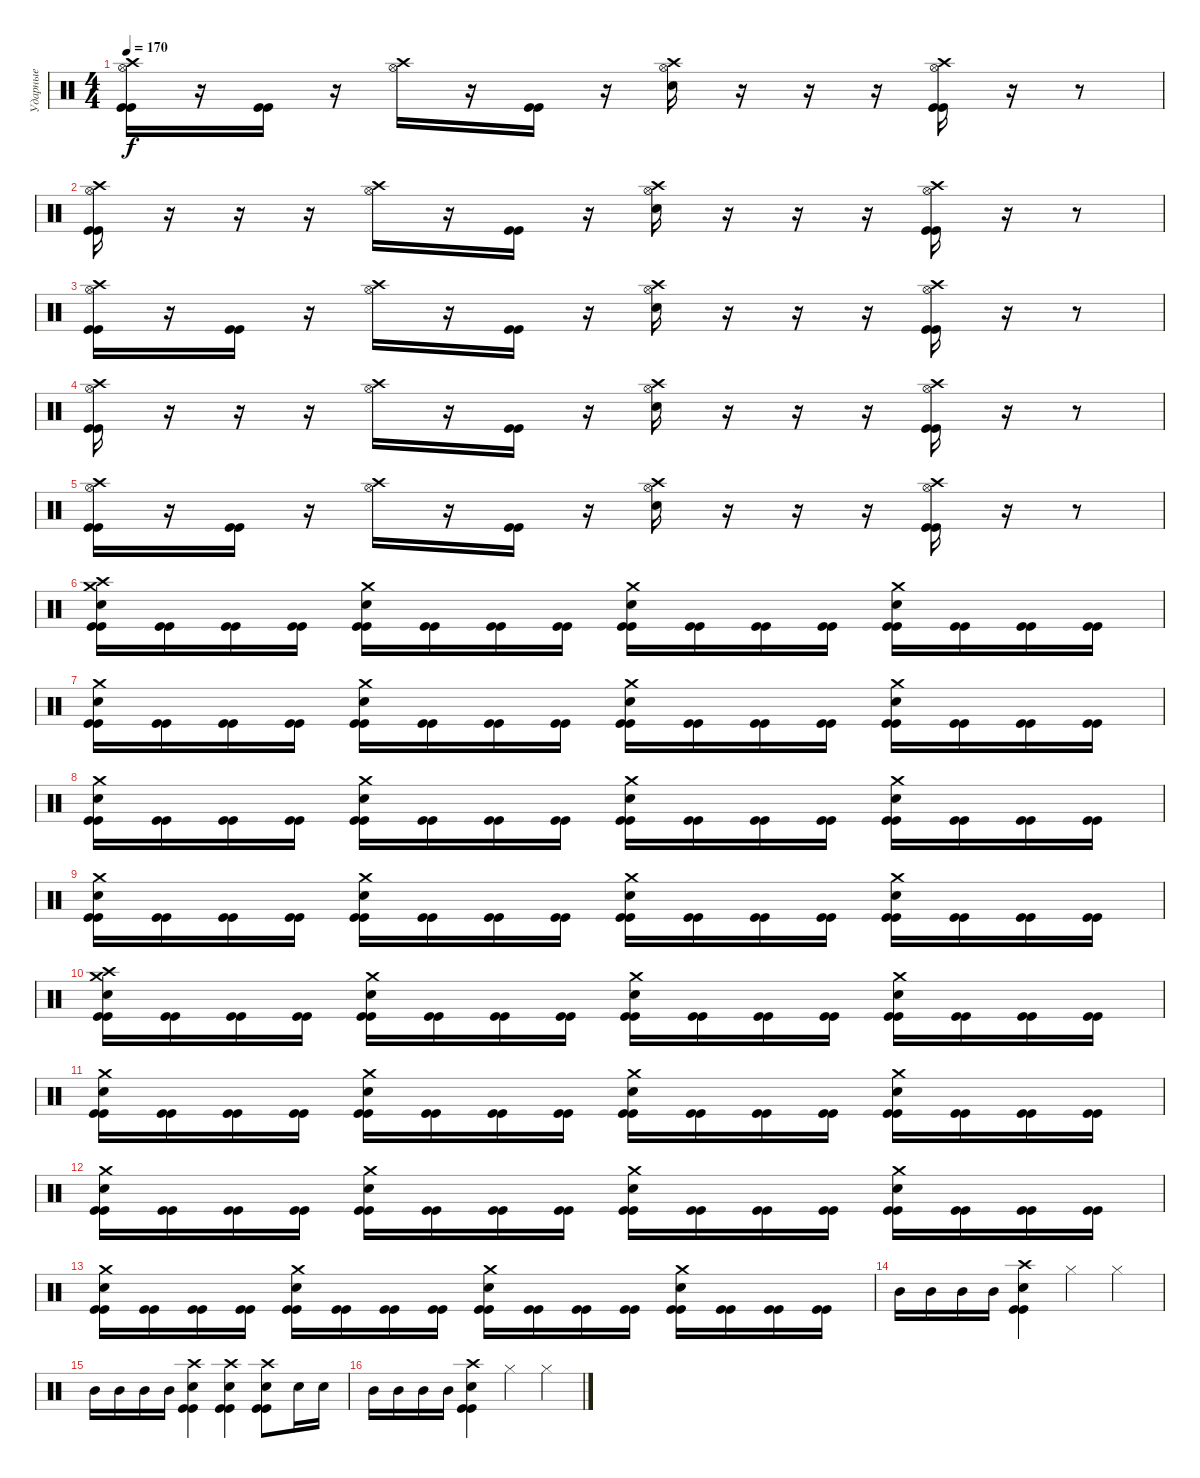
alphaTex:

\track ("Ударные" "Ударные") {instrument percussion}
\staff {score}
\articulation defaults
\ts (4 4)
\tempo 170
\clef neutral
\ks c
("Crash high (hit)" "Hi-Hat (open)" "Kick (hit)" "Kick (hit)").16{dy f} r.16 ("Kick (hit)" "Kick (hit)").16 r.16 ("Crash high (hit)" "Hi-Hat (open)").16 r.16 ("Kick (hit)" "Kick (hit)").16 r.16 ("Crash high (hit)" "Hi-Hat (open)" "Electric Snare (hit)").16 r.16 r.16 r.16 ("Crash high (hit)" "Hi-Hat (open)" "Kick (hit)" "Kick (hit)").16 r.16 r.8 |
("Crash high (hit)" "Hi-Hat (open)" "Kick (hit)" "Kick (hit)").16 r.16 r.16 r.16 ("Crash high (hit)" "Hi-Hat (open)").16 r.16 ("Kick (hit)" "Kick (hit)").16 r.16 ("Crash high (hit)" "Hi-Hat (open)" "Electric Snare (hit)").16 r.16 r.16 r.16 ("Crash high (hit)" "Hi-Hat (open)" "Kick (hit)" "Kick (hit)").16 r.16 r.8 |
("Crash high (hit)" "Hi-Hat (open)" "Kick (hit)" "Kick (hit)").16 r.16 ("Kick (hit)" "Kick (hit)").16 r.16 ("Crash high (hit)" "Hi-Hat (open)").16 r.16 ("Kick (hit)" "Kick (hit)").16 r.16 ("Crash high (hit)" "Hi-Hat (open)" "Electric Snare (hit)").16 r.16 r.16 r.16 ("Crash high (hit)" "Hi-Hat (open)" "Kick (hit)" "Kick (hit)").16 r.16 r.8 |
("Crash high (hit)" "Hi-Hat (open)" "Kick (hit)" "Kick (hit)").16 r.16 r.16 r.16 ("Crash high (hit)" "Hi-Hat (open)").16 r.16 ("Kick (hit)" "Kick (hit)").16 r.16 ("Crash high (hit)" "Hi-Hat (open)" "Electric Snare (hit)").16 r.16 r.16 r.16 ("Crash high (hit)" "Hi-Hat (open)" "Kick (hit)" "Kick (hit)").16 r.16 r.8 |
("Crash high (hit)" "Hi-Hat (open)" "Kick (hit)" "Kick (hit)").16 r.16 ("Kick (hit)" "Kick (hit)").16 r.16 ("Crash high (hit)" "Hi-Hat (open)").16 r.16 ("Kick (hit)" "Kick (hit)").16 r.16 ("Crash high (hit)" "Hi-Hat (open)" "Electric Snare (hit)").16 r.16 r.16 r.16 ("Crash high (hit)" "Hi-Hat (open)" "Kick (hit)" "Kick (hit)").16 r.16 r.8 |
("Crash high (hit)" "Crash medium (hit)" "Electric Snare (hit)" "Kick (hit)" "Kick (hit)").16 ("Kick (hit)" "Kick (hit)").16 ("Kick (hit)" "Kick (hit)").16 ("Kick (hit)" "Kick (hit)").16 ("Crash medium (hit)" "Electric Snare (hit)" "Kick (hit)" "Kick (hit)").16 ("Kick (hit)" "Kick (hit)").16 ("Kick (hit)" "Kick (hit)").16 ("Kick (hit)" "Kick (hit)").16 ("Crash medium (hit)" "Electric Snare (hit)" "Kick (hit)" "Kick (hit)").16 ("Kick (hit)" "Kick (hit)").16 ("Kick (hit)" "Kick (hit)").16 ("Kick (hit)" "Kick (hit)").16 ("Crash medium (hit)" "Electric Snare (hit)" "Kick (hit)" "Kick (hit)").16 ("Kick (hit)" "Kick (hit)").16 ("Kick (hit)" "Kick (hit)").16 ("Kick (hit)" "Kick (hit)").16 |
("Crash medium (hit)" "Electric Snare (hit)" "Kick (hit)" "Kick (hit)").16 ("Kick (hit)" "Kick (hit)").16 ("Kick (hit)" "Kick (hit)").16 ("Kick (hit)" "Kick (hit)").16 ("Crash medium (hit)" "Electric Snare (hit)" "Kick (hit)" "Kick (hit)").16 ("Kick (hit)" "Kick (hit)").16 ("Kick (hit)" "Kick (hit)").16 ("Kick (hit)" "Kick (hit)").16 ("Crash medium (hit)" "Electric Snare (hit)" "Kick (hit)" "Kick (hit)").16 ("Kick (hit)" "Kick (hit)").16 ("Kick (hit)" "Kick (hit)").16 ("Kick (hit)" "Kick (hit)").16 ("Crash medium (hit)" "Electric Snare (hit)" "Kick (hit)" "Kick (hit)").16 ("Kick (hit)" "Kick (hit)").16 ("Kick (hit)" "Kick (hit)").16 ("Kick (hit)" "Kick (hit)").16 |
("Crash medium (hit)" "Electric Snare (hit)" "Kick (hit)" "Kick (hit)").16 ("Kick (hit)" "Kick (hit)").16 ("Kick (hit)" "Kick (hit)").16 ("Kick (hit)" "Kick (hit)").16 ("Crash medium (hit)" "Electric Snare (hit)" "Kick (hit)" "Kick (hit)").16 ("Kick (hit)" "Kick (hit)").16 ("Kick (hit)" "Kick (hit)").16 ("Kick (hit)" "Kick (hit)").16 ("Crash medium (hit)" "Electric Snare (hit)" "Kick (hit)" "Kick (hit)").16 ("Kick (hit)" "Kick (hit)").16 ("Kick (hit)" "Kick (hit)").16 ("Kick (hit)" "Kick (hit)").16 ("Crash medium (hit)" "Electric Snare (hit)" "Kick (hit)" "Kick (hit)").16 ("Kick (hit)" "Kick (hit)").16 ("Kick (hit)" "Kick (hit)").16 ("Kick (hit)" "Kick (hit)").16 |
("Crash medium (hit)" "Electric Snare (hit)" "Kick (hit)" "Kick (hit)").16 ("Kick (hit)" "Kick (hit)").16 ("Kick (hit)" "Kick (hit)").16 ("Kick (hit)" "Kick (hit)").16 ("Crash medium (hit)" "Electric Snare (hit)" "Kick (hit)" "Kick (hit)").16 ("Kick (hit)" "Kick (hit)").16 ("Kick (hit)" "Kick (hit)").16 ("Kick (hit)" "Kick (hit)").16 ("Crash medium (hit)" "Electric Snare (hit)" "Kick (hit)" "Kick (hit)").16 ("Kick (hit)" "Kick (hit)").16 ("Kick (hit)" "Kick (hit)").16 ("Kick (hit)" "Kick (hit)").16 ("Crash medium (hit)" "Electric Snare (hit)" "Kick (hit)" "Kick (hit)").16 ("Kick (hit)" "Kick (hit)").16 ("Kick (hit)" "Kick (hit)").16 ("Kick (hit)" "Kick (hit)").16 |
("Crash high (hit)" "Crash medium (hit)" "Electric Snare (hit)" "Kick (hit)" "Kick (hit)").16 ("Kick (hit)" "Kick (hit)").16 ("Kick (hit)" "Kick (hit)").16 ("Kick (hit)" "Kick (hit)").16 ("Crash medium (hit)" "Electric Snare (hit)" "Kick (hit)" "Kick (hit)").16 ("Kick (hit)" "Kick (hit)").16 ("Kick (hit)" "Kick (hit)").16 ("Kick (hit)" "Kick (hit)").16 ("Crash medium (hit)" "Electric Snare (hit)" "Kick (hit)" "Kick (hit)").16 ("Kick (hit)" "Kick (hit)").16 ("Kick (hit)" "Kick (hit)").16 ("Kick (hit)" "Kick (hit)").16 ("Crash medium (hit)" "Electric Snare (hit)" "Kick (hit)" "Kick (hit)").16 ("Kick (hit)" "Kick (hit)").16 ("Kick (hit)" "Kick (hit)").16 ("Kick (hit)" "Kick (hit)").16 |
("Crash medium (hit)" "Electric Snare (hit)" "Kick (hit)" "Kick (hit)").16 ("Kick (hit)" "Kick (hit)").16 ("Kick (hit)" "Kick (hit)").16 ("Kick (hit)" "Kick (hit)").16 ("Crash medium (hit)" "Electric Snare (hit)" "Kick (hit)" "Kick (hit)").16 ("Kick (hit)" "Kick (hit)").16 ("Kick (hit)" "Kick (hit)").16 ("Kick (hit)" "Kick (hit)").16 ("Crash medium (hit)" "Electric Snare (hit)" "Kick (hit)" "Kick (hit)").16 ("Kick (hit)" "Kick (hit)").16 ("Kick (hit)" "Kick (hit)").16 ("Kick (hit)" "Kick (hit)").16 ("Crash medium (hit)" "Electric Snare (hit)" "Kick (hit)" "Kick (hit)").16 ("Kick (hit)" "Kick (hit)").16 ("Kick (hit)" "Kick (hit)").16 ("Kick (hit)" "Kick (hit)").16 |
("Crash medium (hit)" "Electric Snare (hit)" "Kick (hit)" "Kick (hit)").16 ("Kick (hit)" "Kick (hit)").16 ("Kick (hit)" "Kick (hit)").16 ("Kick (hit)" "Kick (hit)").16 ("Crash medium (hit)" "Electric Snare (hit)" "Kick (hit)" "Kick (hit)").16 ("Kick (hit)" "Kick (hit)").16 ("Kick (hit)" "Kick (hit)").16 ("Kick (hit)" "Kick (hit)").16 ("Crash medium (hit)" "Electric Snare (hit)" "Kick (hit)" "Kick (hit)").16 ("Kick (hit)" "Kick (hit)").16 ("Kick (hit)" "Kick (hit)").16 ("Kick (hit)" "Kick (hit)").16 ("Crash medium (hit)" "Electric Snare (hit)" "Kick (hit)" "Kick (hit)").16 ("Kick (hit)" "Kick (hit)").16 ("Kick (hit)" "Kick (hit)").16 ("Kick (hit)" "Kick (hit)").16 |
("Crash medium (hit)" "Electric Snare (hit)" "Kick (hit)" "Kick (hit)").16 ("Kick (hit)" "Kick (hit)").16 ("Kick (hit)" "Kick (hit)").16 ("Kick (hit)" "Kick (hit)").16 ("Crash medium (hit)" "Electric Snare (hit)" "Kick (hit)" "Kick (hit)").16 ("Kick (hit)" "Kick (hit)").16 ("Kick (hit)" "Kick (hit)").16 ("Kick (hit)" "Kick (hit)").16 ("Crash medium (hit)" "Electric Snare (hit)" "Kick (hit)" "Kick (hit)").16 ("Kick (hit)" "Kick (hit)").16 ("Kick (hit)" "Kick (hit)").16 ("Kick (hit)" "Kick (hit)").16 ("Crash medium (hit)" "Electric Snare (hit)" "Kick (hit)" "Kick (hit)").16 ("Kick (hit)" "Kick (hit)").16 ("Kick (hit)" "Kick (hit)").16 ("Kick (hit)" "Kick (hit)").16 |
"Mid Tom (hit)".16 "Mid Tom (hit)".16 "Mid Tom (hit)".16 "Mid Tom (hit)".16 ("Crash high (hit)" "Electric Snare (hit)" "Kick (hit)" "Kick (hit)").4 "Hi-Hat (closed)".4 "Hi-Hat (closed)".4 |
"Mid Tom (hit)".16 "Mid Tom (hit)".16 "Mid Tom (hit)".16 "Mid Tom (hit)".16 ("Crash high (hit)" "Electric Snare (hit)" "Kick (hit)" "Kick (hit)").4 ("Crash high (hit)" "Electric Snare (hit)" "Kick (hit)" "Kick (hit)").4 ("Crash high (hit)" "Electric Snare (hit)" "Kick (hit)" "Kick (hit)").8 "Electric Snare (hit)".16 "Electric Snare (hit)".16 |
"Mid Tom (hit)".16 "Mid Tom (hit)".16 "Mid Tom (hit)".16 "Mid Tom (hit)".16 ("Crash high (hit)" "Electric Snare (hit)" "Kick (hit)" "Kick (hit)").4 "Hi-Hat (closed)".4 "Hi-Hat (closed)".4
